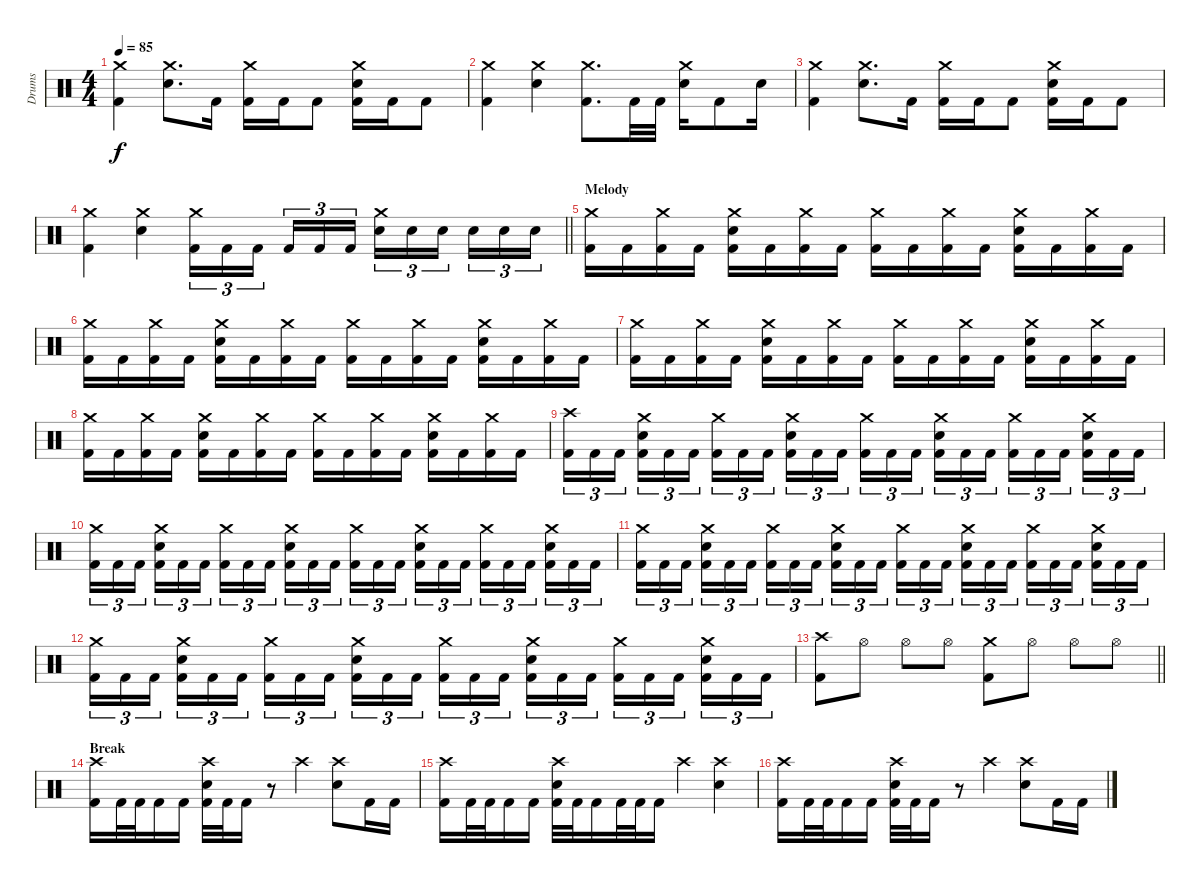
\track ("Drums" "Drums") {instrument percussion}
\staff {score}
\articulation defaults
\ts (4 4)
\tempo 85
\clef neutral
\ks c
("Crash medium (hit)" "Kick (hit) 2").4{dy f} ("Crash medium (hit)" "Electric Snare (hit)").8{d} "Kick (hit) 2".16 ("Crash medium (hit)" "Kick (hit) 2").16 "Kick (hit) 2".16 "Kick (hit) 2".8 ("Crash medium (hit)" "Electric Snare (hit)" "Kick (hit) 2").16 "Kick (hit) 2".16 "Kick (hit) 2".8 |
("Crash medium (hit)" "Kick (hit) 2").4 ("Crash medium (hit)" "Electric Snare (hit)").4 ("Crash medium (hit)" "Kick (hit) 2").8{d} "Kick (hit) 2".32 "Kick (hit) 2".32 ("Crash medium (hit)" "Electric Snare (hit)").16 "Kick (hit) 2".8 "Electric Snare (hit)".16 |
("Crash medium (hit)" "Kick (hit) 2").4 ("Crash medium (hit)" "Electric Snare (hit)").8{d} "Kick (hit) 2".16 ("Crash medium (hit)" "Kick (hit) 2").16 "Kick (hit) 2".16 "Kick (hit) 2".8 ("Crash medium (hit)" "Electric Snare (hit)" "Kick (hit) 2").16 "Kick (hit) 2".16 "Kick (hit) 2".8 |
\barLineRight lightlight
("Crash medium (hit)" "Kick (hit) 2").4 ("Crash medium (hit)" "Electric Snare (hit)").4 ("Crash medium (hit)" "Kick (hit) 2").16{tu (3 2)} "Kick (hit) 2".16{tu (3 2)} "Kick (hit) 2".16{tu (3 2)} "Kick (hit) 2".16{tu (3 2)} "Kick (hit) 2".16{tu (3 2)} "Kick (hit) 2".16{tu (3 2)} ("Crash medium (hit)" "Electric Snare (hit)").16{tu (3 2)} "Electric Snare (hit)".16{tu (3 2)} "Electric Snare (hit)".16{tu (3 2)} "Electric Snare (hit)".16{tu (3 2)} "Electric Snare (hit)".16{tu (3 2)} "Electric Snare (hit)".16{tu (3 2)} |
\section ("" "Melody")
("Crash medium (hit)" "Kick (hit) 2").16 "Kick (hit) 2".16 ("Crash medium (hit)" "Kick (hit) 2").16 "Kick (hit) 2".16 ("Crash medium (hit)" "Electric Snare (hit)" "Kick (hit) 2").16 "Kick (hit) 2".16 ("Crash medium (hit)" "Kick (hit) 2").16 "Kick (hit) 2".16 ("Crash medium (hit)" "Kick (hit) 2").16 "Kick (hit) 2".16 ("Crash medium (hit)" "Kick (hit) 2").16 "Kick (hit) 2".16 ("Crash medium (hit)" "Electric Snare (hit)" "Kick (hit) 2").16 "Kick (hit) 2".16 ("Crash medium (hit)" "Kick (hit) 2").16 "Kick (hit) 2".16 |
("Crash medium (hit)" "Kick (hit) 2").16 "Kick (hit) 2".16 ("Crash medium (hit)" "Kick (hit) 2").16 "Kick (hit) 2".16 ("Crash medium (hit)" "Electric Snare (hit)" "Kick (hit) 2").16 "Kick (hit) 2".16 ("Crash medium (hit)" "Kick (hit) 2").16 "Kick (hit) 2".16 ("Crash medium (hit)" "Kick (hit) 2").16 "Kick (hit) 2".16 ("Crash medium (hit)" "Kick (hit) 2").16 "Kick (hit) 2".16 ("Crash medium (hit)" "Electric Snare (hit)" "Kick (hit) 2").16 "Kick (hit) 2".16 ("Crash medium (hit)" "Kick (hit) 2").16 "Kick (hit) 2".16 |
("Crash medium (hit)" "Kick (hit) 2").16 "Kick (hit) 2".16 ("Crash medium (hit)" "Kick (hit) 2").16 "Kick (hit) 2".16 ("Crash medium (hit)" "Electric Snare (hit)" "Kick (hit) 2").16 "Kick (hit) 2".16 ("Crash medium (hit)" "Kick (hit) 2").16 "Kick (hit) 2".16 ("Crash medium (hit)" "Kick (hit) 2").16 "Kick (hit) 2".16 ("Crash medium (hit)" "Kick (hit) 2").16 "Kick (hit) 2".16 ("Crash medium (hit)" "Electric Snare (hit)" "Kick (hit) 2").16 "Kick (hit) 2".16 ("Crash medium (hit)" "Kick (hit) 2").16 "Kick (hit) 2".16 |
("Crash medium (hit)" "Kick (hit) 2").16 "Kick (hit) 2".16 ("Crash medium (hit)" "Kick (hit) 2").16 "Kick (hit) 2".16 ("Crash medium (hit)" "Electric Snare (hit)" "Kick (hit) 2").16 "Kick (hit) 2".16 ("Crash medium (hit)" "Kick (hit) 2").16 "Kick (hit) 2".16 ("Crash medium (hit)" "Kick (hit) 2").16 "Kick (hit) 2".16 ("Crash medium (hit)" "Kick (hit) 2").16 "Kick (hit) 2".16 ("Crash medium (hit)" "Electric Snare (hit)" "Kick (hit) 2").16 "Kick (hit) 2".16 ("Crash medium (hit)" "Kick (hit) 2").16 "Kick (hit) 2".16 |
("Crash high (hit)" "Kick (hit) 2").16{tu (3 2)} "Kick (hit) 2".16{tu (3 2)} "Kick (hit) 2".16{tu (3 2)} ("Crash medium (hit)" "Electric Snare (hit)" "Kick (hit) 2").16{tu (3 2)} "Kick (hit) 2".16{tu (3 2)} "Kick (hit) 2".16{tu (3 2)} ("Crash medium (hit)" "Kick (hit) 2").16{tu (3 2)} "Kick (hit) 2".16{tu (3 2)} "Kick (hit) 2".16{tu (3 2)} ("Crash medium (hit)" "Electric Snare (hit)" "Kick (hit) 2").16{tu (3 2)} "Kick (hit) 2".16{tu (3 2)} "Kick (hit) 2".16{tu (3 2)} ("Crash medium (hit)" "Kick (hit) 2").16{tu (3 2)} "Kick (hit) 2".16{tu (3 2)} "Kick (hit) 2".16{tu (3 2)} ("Crash medium (hit)" "Electric Snare (hit)" "Kick (hit) 2").16{tu (3 2)} "Kick (hit) 2".16{tu (3 2)} "Kick (hit) 2".16{tu (3 2)} ("Crash medium (hit)" "Kick (hit) 2").16{tu (3 2)} "Kick (hit) 2".16{tu (3 2)} "Kick (hit) 2".16{tu (3 2)} ("Crash medium (hit)" "Electric Snare (hit)" "Kick (hit) 2").16{tu (3 2)} "Kick (hit) 2".16{tu (3 2)} "Kick (hit) 2".16{tu (3 2)} |
("Crash medium (hit)" "Kick (hit) 2").16{tu (3 2)} "Kick (hit) 2".16{tu (3 2)} "Kick (hit) 2".16{tu (3 2)} ("Crash medium (hit)" "Electric Snare (hit)" "Kick (hit) 2").16{tu (3 2)} "Kick (hit) 2".16{tu (3 2)} "Kick (hit) 2".16{tu (3 2)} ("Crash medium (hit)" "Kick (hit) 2").16{tu (3 2)} "Kick (hit) 2".16{tu (3 2)} "Kick (hit) 2".16{tu (3 2)} ("Crash medium (hit)" "Electric Snare (hit)" "Kick (hit) 2").16{tu (3 2)} "Kick (hit) 2".16{tu (3 2)} "Kick (hit) 2".16{tu (3 2)} ("Crash medium (hit)" "Kick (hit) 2").16{tu (3 2)} "Kick (hit) 2".16{tu (3 2)} "Kick (hit) 2".16{tu (3 2)} ("Crash medium (hit)" "Electric Snare (hit)" "Kick (hit) 2").16{tu (3 2)} "Kick (hit) 2".16{tu (3 2)} "Kick (hit) 2".16{tu (3 2)} ("Crash medium (hit)" "Kick (hit) 2").16{tu (3 2)} "Kick (hit) 2".16{tu (3 2)} "Kick (hit) 2".16{tu (3 2)} ("Crash medium (hit)" "Electric Snare (hit)" "Kick (hit) 2").16{tu (3 2)} "Kick (hit) 2".16{tu (3 2)} "Kick (hit) 2".16{tu (3 2)} |
("Crash medium (hit)" "Kick (hit) 2").16{tu (3 2)} "Kick (hit) 2".16{tu (3 2)} "Kick (hit) 2".16{tu (3 2)} ("Crash medium (hit)" "Electric Snare (hit)" "Kick (hit) 2").16{tu (3 2)} "Kick (hit) 2".16{tu (3 2)} "Kick (hit) 2".16{tu (3 2)} ("Crash medium (hit)" "Kick (hit) 2").16{tu (3 2)} "Kick (hit) 2".16{tu (3 2)} "Kick (hit) 2".16{tu (3 2)} ("Crash medium (hit)" "Electric Snare (hit)" "Kick (hit) 2").16{tu (3 2)} "Kick (hit) 2".16{tu (3 2)} "Kick (hit) 2".16{tu (3 2)} ("Crash medium (hit)" "Kick (hit) 2").16{tu (3 2)} "Kick (hit) 2".16{tu (3 2)} "Kick (hit) 2".16{tu (3 2)} ("Crash medium (hit)" "Electric Snare (hit)" "Kick (hit) 2").16{tu (3 2)} "Kick (hit) 2".16{tu (3 2)} "Kick (hit) 2".16{tu (3 2)} ("Crash medium (hit)" "Kick (hit) 2").16{tu (3 2)} "Kick (hit) 2".16{tu (3 2)} "Kick (hit) 2".16{tu (3 2)} ("Crash medium (hit)" "Electric Snare (hit)" "Kick (hit) 2").16{tu (3 2)} "Kick (hit) 2".16{tu (3 2)} "Kick (hit) 2".16{tu (3 2)} |
("Crash medium (hit)" "Kick (hit) 2").16{tu (3 2)} "Kick (hit) 2".16{tu (3 2)} "Kick (hit) 2".16{tu (3 2)} ("Crash medium (hit)" "Electric Snare (hit)" "Kick (hit) 2").16{tu (3 2)} "Kick (hit) 2".16{tu (3 2)} "Kick (hit) 2".16{tu (3 2)} ("Crash medium (hit)" "Kick (hit) 2").16{tu (3 2)} "Kick (hit) 2".16{tu (3 2)} "Kick (hit) 2".16{tu (3 2)} ("Crash medium (hit)" "Electric Snare (hit)" "Kick (hit) 2").16{tu (3 2)} "Kick (hit) 2".16{tu (3 2)} "Kick (hit) 2".16{tu (3 2)} ("Crash medium (hit)" "Kick (hit) 2").16{tu (3 2)} "Kick (hit) 2".16{tu (3 2)} "Kick (hit) 2".16{tu (3 2)} ("Crash medium (hit)" "Electric Snare (hit)" "Kick (hit) 2").16{tu (3 2)} "Kick (hit) 2".16{tu (3 2)} "Kick (hit) 2".16{tu (3 2)} ("Crash medium (hit)" "Kick (hit) 2").16{tu (3 2)} "Kick (hit) 2".16{tu (3 2)} "Kick (hit) 2".16{tu (3 2)} ("Crash medium (hit)" "Electric Snare (hit)" "Kick (hit) 2").16{tu (3 2)} "Kick (hit) 2".16{tu (3 2)} "Kick (hit) 2".16{tu (3 2)} |
\barLineRight lightlight
("Crash high (hit)" "Kick (hit) 2").8 "Hi-Hat (open)".8 "Hi-Hat (open)".8 "Hi-Hat (open)".8 ("Crash medium (hit)" "Kick (hit) 2").8 "Hi-Hat (open)".8 "Hi-Hat (open)".8 "Hi-Hat (open)".8 |
\section ("" "Break")
("Crash high (hit)" "Kick (hit) 2").16 "Kick (hit) 2".32 "Kick (hit) 2".32 "Kick (hit) 2".16 "Kick (hit) 2".16 ("Crash high (hit)" "Electric Snare (hit)" "Kick (hit) 2").32 "Kick (hit) 2".32 "Kick (hit) 2".16 r.8 "Crash high (hit)".4 ("Crash high (hit)" "Electric Snare (hit)").8 "Kick (hit) 2".16 "Kick (hit) 2".16 |
("Crash high (hit)" "Kick (hit) 2").16 "Kick (hit) 2".32 "Kick (hit) 2".32 "Kick (hit) 2".16 "Kick (hit) 2".16 ("Crash high (hit)" "Electric Snare (hit)" "Kick (hit) 2").32 "Kick (hit) 2".32 "Kick (hit) 2".16 "Kick (hit) 2".32 "Kick (hit) 2".32 "Kick (hit) 2".16 "Crash high (hit)".4 ("Crash high (hit)" "Electric Snare (hit)").4 |
("Crash high (hit)" "Kick (hit) 2").16 "Kick (hit) 2".32 "Kick (hit) 2".32 "Kick (hit) 2".16 "Kick (hit) 2".16 ("Crash high (hit)" "Electric Snare (hit)" "Kick (hit) 2").32 "Kick (hit) 2".32 "Kick (hit) 2".16 r.8 "Crash high (hit)".4 ("Crash high (hit)" "Electric Snare (hit)").8 "Kick (hit) 2".16 "Kick (hit) 2".16
